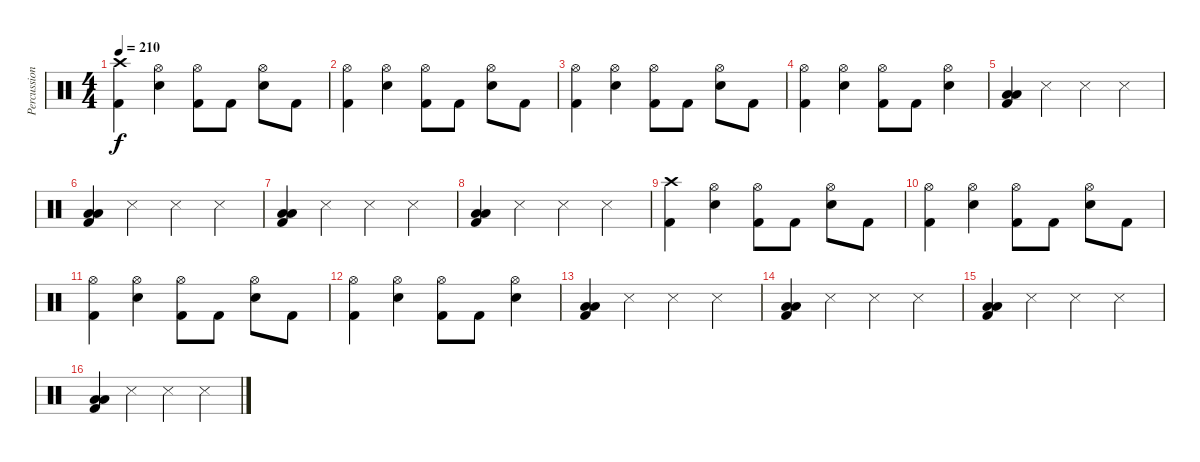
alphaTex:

\track ("Percussion" "Percussion") {instrument percussion}
\staff {score}
\articulation defaults
\ts (4 4)
\tempo 210
\clef neutral
\ks c
("Crash high (hit)" "Kick (hit) 2").4{dy f} ("Hi-Hat (open)" "Electric Snare (hit)").4 ("Hi-Hat (open)" "Kick (hit) 2").8 "Kick (hit) 2".8 ("Hi-Hat (open)" "Electric Snare (hit)").8 "Kick (hit) 2".8 |
("Hi-Hat (open)" "Kick (hit) 2").4 ("Hi-Hat (open)" "Electric Snare (hit)").4 ("Hi-Hat (open)" "Kick (hit) 2").8 "Kick (hit) 2".8 ("Hi-Hat (open)" "Electric Snare (hit)").8 "Kick (hit) 2".8 |
("Hi-Hat (open)" "Kick (hit) 2").4 ("Hi-Hat (open)" "Electric Snare (hit)").4 ("Hi-Hat (open)" "Kick (hit) 2").8 "Kick (hit) 2".8 ("Hi-Hat (open)" "Electric Snare (hit)").8 "Kick (hit) 2".8 |
("Hi-Hat (open)" "Kick (hit) 2").4 ("Hi-Hat (open)" "Electric Snare (hit)").4 ("Hi-Hat (open)" "Kick (hit) 2").8 "Kick (hit) 2".8 ("Hi-Hat (open)" "Electric Snare (hit)").4 |
("Low Floor Tom (hit)" "Low Tom (hit)" "Kick (hit) 2").4 "Snare (side stick) 3".4 "Snare (side stick) 3".4 "Snare (side stick) 3".4 |
("Low Floor Tom (hit)" "Low Tom (hit)" "Kick (hit) 2").4 "Snare (side stick) 3".4 "Snare (side stick) 3".4 "Snare (side stick) 3".4 |
("Low Floor Tom (hit)" "Low Tom (hit)" "Kick (hit) 2").4 "Snare (side stick) 3".4 "Snare (side stick) 3".4 "Snare (side stick) 3".4 |
("Low Floor Tom (hit)" "Low Tom (hit)" "Kick (hit) 2").4 "Snare (side stick) 3".4 "Snare (side stick) 3".4 "Snare (side stick) 3".4 |
("Crash high (hit)" "Kick (hit) 2").4 ("Hi-Hat (open)" "Electric Snare (hit)").4 ("Hi-Hat (open)" "Kick (hit) 2").8 "Kick (hit) 2".8 ("Hi-Hat (open)" "Electric Snare (hit)").8 "Kick (hit) 2".8 |
("Hi-Hat (open)" "Kick (hit) 2").4 ("Hi-Hat (open)" "Electric Snare (hit)").4 ("Hi-Hat (open)" "Kick (hit) 2").8 "Kick (hit) 2".8 ("Hi-Hat (open)" "Electric Snare (hit)").8 "Kick (hit) 2".8 |
("Hi-Hat (open)" "Kick (hit) 2").4 ("Hi-Hat (open)" "Electric Snare (hit)").4 ("Hi-Hat (open)" "Kick (hit) 2").8 "Kick (hit) 2".8 ("Hi-Hat (open)" "Electric Snare (hit)").8 "Kick (hit) 2".8 |
("Hi-Hat (open)" "Kick (hit) 2").4 ("Hi-Hat (open)" "Electric Snare (hit)").4 ("Hi-Hat (open)" "Kick (hit) 2").8 "Kick (hit) 2".8 ("Hi-Hat (open)" "Electric Snare (hit)").4 |
("Low Floor Tom (hit)" "Low Tom (hit)" "Kick (hit) 2").4 "Snare (side stick) 3".4 "Snare (side stick) 3".4 "Snare (side stick) 3".4 |
("Low Floor Tom (hit)" "Low Tom (hit)" "Kick (hit) 2").4 "Snare (side stick) 3".4 "Snare (side stick) 3".4 "Snare (side stick) 3".4 |
("Low Floor Tom (hit)" "Low Tom (hit)" "Kick (hit) 2").4 "Snare (side stick) 3".4 "Snare (side stick) 3".4 "Snare (side stick) 3".4 |
("Low Floor Tom (hit)" "Low Tom (hit)" "Kick (hit) 2").4 "Snare (side stick) 3".4 "Snare (side stick) 3".4 "Snare (side stick) 3".4
